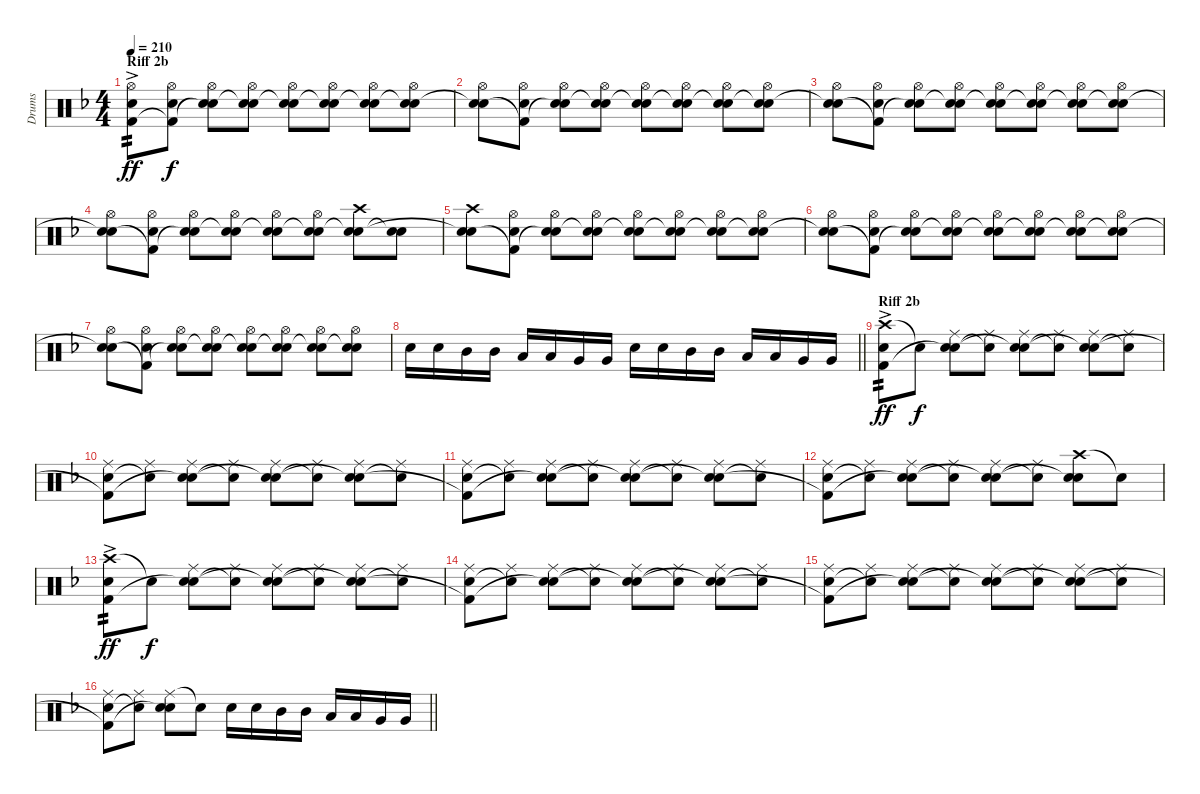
\track ("Drums" "Drums") {instrument percussion}
\staff {score}
\articulation defaults
\ts (4 4)
\section ("" "Riff 2b")
\tempo 210
\clef neutral
\ks dminor
("Hi-Hat (open)" "Electric Snare (hit)" "Kick (hit) 2"{ac}).8{tp 2 dy ff} ("Hi-Hat (open)" "Electric Snare (hit)" "Kick (hit) 2"{t}).8{dy f} ("Hi-Hat (open)" "Electric Snare (hit)" "Snare (hit)"{t}).8 ("Hi-Hat (open)" "Electric Snare (hit)" "Snare (hit)"{t}).8 ("Hi-Hat (open)" "Electric Snare (hit)" "Snare (hit)"{t}).8 ("Hi-Hat (open)" "Electric Snare (hit)" "Snare (hit)"{t}).8 ("Hi-Hat (open)" "Electric Snare (hit)" "Snare (hit)"{t}).8 ("Hi-Hat (open)" "Electric Snare (hit)" "Snare (hit)"{t}).8 |
("Hi-Hat (open)" "Electric Snare (hit)" "Snare (hit)"{t}).8 ("Hi-Hat (open)" "Electric Snare (hit)" "Kick (hit) 2"{t}).8 ("Hi-Hat (open)" "Electric Snare (hit)" "Snare (hit)"{t}).8 ("Hi-Hat (open)" "Electric Snare (hit)" "Snare (hit)"{t}).8 ("Hi-Hat (open)" "Electric Snare (hit)" "Snare (hit)"{t}).8 ("Hi-Hat (open)" "Electric Snare (hit)" "Snare (hit)"{t}).8 ("Hi-Hat (open)" "Electric Snare (hit)" "Snare (hit)"{t}).8 ("Hi-Hat (open)" "Electric Snare (hit)" "Snare (hit)"{t}).8 |
("Hi-Hat (open)" "Electric Snare (hit)" "Snare (hit)"{t}).8 ("Hi-Hat (open)" "Electric Snare (hit)" "Kick (hit) 2"{t}).8 ("Hi-Hat (open)" "Electric Snare (hit)" "Snare (hit)"{t}).8 ("Hi-Hat (open)" "Electric Snare (hit)" "Snare (hit)"{t}).8 ("Hi-Hat (open)" "Electric Snare (hit)" "Snare (hit)"{t}).8 ("Hi-Hat (open)" "Electric Snare (hit)" "Snare (hit)"{t}).8 ("Hi-Hat (open)" "Electric Snare (hit)" "Snare (hit)"{t}).8 ("Hi-Hat (open)" "Electric Snare (hit)" "Snare (hit)"{t}).8 |
("Hi-Hat (open)" "Electric Snare (hit)" "Snare (hit)"{t}).8 ("Hi-Hat (open)" "Electric Snare (hit)" "Kick (hit) 2"{t}).8 ("Hi-Hat (open)" "Electric Snare (hit)" "Snare (hit)"{t}).8 ("Hi-Hat (open)" "Electric Snare (hit)" "Snare (hit)"{t}).8 ("Hi-Hat (open)" "Electric Snare (hit)" "Snare (hit)"{t}).8 ("Hi-Hat (open)" "Electric Snare (hit)" "Snare (hit)"{t}).8 ("Crash high (hit)" "Electric Snare (hit)" "Snare (hit)"{t}).8 ("Electric Snare (hit)" "Snare (hit)"{t}).8 |
("Crash high (hit)" "Electric Snare (hit)" "Snare (hit)"{t}).8 ("Hi-Hat (open)" "Electric Snare (hit)" "Kick (hit) 2"{t}).8 ("Hi-Hat (open)" "Electric Snare (hit)" "Snare (hit)"{t}).8 ("Hi-Hat (open)" "Electric Snare (hit)" "Snare (hit)"{t}).8 ("Hi-Hat (open)" "Electric Snare (hit)" "Snare (hit)"{t}).8 ("Hi-Hat (open)" "Electric Snare (hit)" "Snare (hit)"{t}).8 ("Hi-Hat (open)" "Electric Snare (hit)" "Snare (hit)"{t}).8 ("Hi-Hat (open)" "Electric Snare (hit)" "Snare (hit)"{t}).8 |
("Hi-Hat (open)" "Electric Snare (hit)" "Snare (hit)"{t}).8 ("Hi-Hat (open)" "Electric Snare (hit)" "Kick (hit) 2"{t}).8 ("Hi-Hat (open)" "Electric Snare (hit)" "Snare (hit)"{t}).8 ("Hi-Hat (open)" "Electric Snare (hit)" "Snare (hit)"{t}).8 ("Hi-Hat (open)" "Electric Snare (hit)" "Snare (hit)"{t}).8 ("Hi-Hat (open)" "Electric Snare (hit)" "Snare (hit)"{t}).8 ("Hi-Hat (open)" "Electric Snare (hit)" "Snare (hit)"{t}).8 ("Hi-Hat (open)" "Electric Snare (hit)" "Snare (hit)"{t}).8 |
("Hi-Hat (open)" "Electric Snare (hit)" "Snare (hit)"{t}).8 ("Hi-Hat (open)" "Electric Snare (hit)" "Kick (hit) 2"{t}).8 ("Hi-Hat (open)" "Electric Snare (hit)" "Snare (hit)"{t}).8 ("Hi-Hat (open)" "Electric Snare (hit)" "Snare (hit)"{t}).8 ("Hi-Hat (open)" "Electric Snare (hit)" "Snare (hit)"{t}).8 ("Hi-Hat (open)" "Electric Snare (hit)" "Snare (hit)"{t}).8 ("Hi-Hat (open)" "Electric Snare (hit)" "Snare (hit)"{t}).8 ("Hi-Hat (open)" "Electric Snare (hit)" "Snare (hit)"{t}).8 |
\barLineRight lightlight "Electric Snare (hit)".16 "Electric Snare (hit)".16 "Mid Tom (hit)".16 "Mid Tom (hit)".16 "Low Tom (hit)".16 "Low Tom (hit)".16 "Very Low Tom (hit)".16 "Very Low Tom (hit)".16 "Electric Snare (hit)".16 "Electric Snare (hit)".16 "Mid Tom (hit)".16 "Mid Tom (hit)".16 "Low Tom (hit)".16 "Low Tom (hit)".16 "Very Low Tom (hit)".16 "Very Low Tom (hit)".16
|
\section ("" "Riff 2b")
("Crash high (hit)" "Electric Snare (hit)" "Kick (hit) 2"{ac}).8{tp 2 dy ff} "Snare (hit)"{t}.8{dy f} ("Ride (middle)" "Electric Snare (hit)" "Snare (hit)"{t}).8 ("Ride (middle)" "Snare (hit)"{t}).8 ("Ride (middle)" "Electric Snare (hit)" "Snare (hit)"{t}).8 ("Ride (middle)" "Snare (hit)"{t}).8 ("Ride (middle)" "Electric Snare (hit)" "Snare (hit)"{t}).8 ("Ride (middle)" "Snare (hit)"{t}).8 |
("Ride (middle)" "Electric Snare (hit)" "Kick (hit) 2"{t}).8 ("Ride (middle)" "Snare (hit)"{t}).8 ("Ride (middle)" "Electric Snare (hit)" "Snare (hit)"{t}).8 ("Ride (middle)" "Snare (hit)"{t}).8 ("Ride (middle)" "Electric Snare (hit)" "Snare (hit)"{t}).8 ("Ride (middle)" "Snare (hit)"{t}).8 ("Ride (middle)" "Electric Snare (hit)" "Snare (hit)"{t}).8 ("Ride (middle)" "Snare (hit)"{t}).8 |
("Ride (middle)" "Electric Snare (hit)" "Kick (hit) 2"{t}).8 ("Ride (middle)" "Snare (hit)"{t}).8 ("Ride (middle)" "Electric Snare (hit)" "Snare (hit)"{t}).8 ("Ride (middle)" "Snare (hit)"{t}).8 ("Ride (middle)" "Electric Snare (hit)" "Snare (hit)"{t}).8 ("Ride (middle)" "Snare (hit)"{t}).8 ("Ride (middle)" "Electric Snare (hit)" "Snare (hit)"{t}).8 ("Ride (middle)" "Snare (hit)"{t}).8 |
("Ride (middle)" "Electric Snare (hit)" "Kick (hit) 2"{t}).8 ("Ride (middle)" "Snare (hit)"{t}).8 ("Ride (middle)" "Electric Snare (hit)" "Snare (hit)"{t}).8 ("Ride (middle)" "Snare (hit)"{t}).8 ("Ride (middle)" "Electric Snare (hit)" "Snare (hit)"{t}).8 ("Ride (middle)" "Snare (hit)"{t}).8 ("Crash high (hit)" "Electric Snare (hit)" "Snare (hit)"{t}).8 "Snare (hit)"{t}.8 |
("Crash high (hit)" "Electric Snare (hit)" "Kick (hit) 2"{ac}).8{tp 2 dy ff} "Snare (hit)"{t}.8{dy f} ("Ride (middle)" "Electric Snare (hit)" "Snare (hit)"{t}).8 ("Ride (middle)" "Snare (hit)"{t}).8 ("Ride (middle)" "Electric Snare (hit)" "Snare (hit)"{t}).8 ("Ride (middle)" "Snare (hit)"{t}).8 ("Ride (middle)" "Electric Snare (hit)" "Snare (hit)"{t}).8 ("Ride (middle)" "Snare (hit)"{t}).8 |
("Ride (middle)" "Electric Snare (hit)" "Kick (hit) 2"{t}).8 ("Ride (middle)" "Snare (hit)"{t}).8 ("Ride (middle)" "Electric Snare (hit)" "Snare (hit)"{t}).8 ("Ride (middle)" "Snare (hit)"{t}).8 ("Ride (middle)" "Electric Snare (hit)" "Snare (hit)"{t}).8 ("Ride (middle)" "Snare (hit)"{t}).8 ("Ride (middle)" "Electric Snare (hit)" "Snare (hit)"{t}).8 ("Ride (middle)" "Snare (hit)"{t}).8 |
("Ride (middle)" "Electric Snare (hit)" "Kick (hit) 2"{t}).8 ("Ride (middle)" "Snare (hit)"{t}).8 ("Ride (middle)" "Electric Snare (hit)" "Snare (hit)"{t}).8 ("Ride (middle)" "Snare (hit)"{t}).8 ("Ride (middle)" "Electric Snare (hit)" "Snare (hit)"{t}).8 ("Ride (middle)" "Snare (hit)"{t}).8 ("Ride (middle)" "Electric Snare (hit)" "Snare (hit)"{t}).8 ("Ride (middle)" "Snare (hit)"{t}).8 |
\barLineRight lightlight
("Ride (middle)" "Electric Snare (hit)" "Kick (hit) 2"{t}).8 ("Ride (middle)" "Snare (hit)"{t}).8 ("Ride (middle)" "Electric Snare (hit)" "Snare (hit)"{t}).8 "Snare (hit)"{t}.8 "Electric Snare (hit)".16 "Electric Snare (hit)".16 "Mid Tom (hit)".16 "Mid Tom (hit)".16 "Low Tom (hit)".16 "Low Tom (hit)".16 "Very Low Tom (hit)".16 "Very Low Tom (hit)".16
